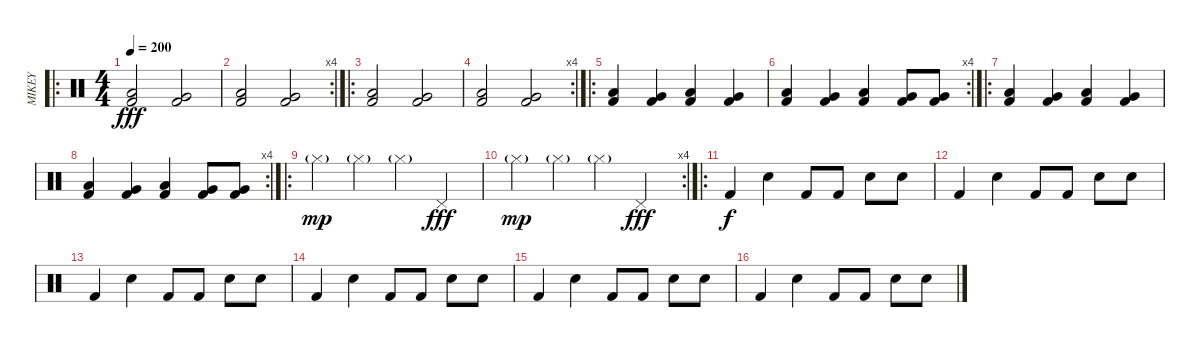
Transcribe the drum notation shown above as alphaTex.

\track ("MIKEY" "MIKEY") {instrument percussion}
\staff {score}
\articulation defaults
\ro
\ts (4 4)
\tempo 200
\clef neutral
\ks c
("Kick (hit) 2" "Low Floor Tom (hit)").2{dy fff} ("Kick (hit) 2" "Very Low Tom (hit)").2 |
\rc 4
("Kick (hit) 2" "Low Floor Tom (hit)").2 ("Kick (hit) 2" "Very Low Tom (hit)").2 |
\ro
("Kick (hit) 2" "Low Floor Tom (hit)").2 ("Kick (hit) 2" "Very Low Tom (hit)").2 |
\rc 4
("Kick (hit) 2" "Low Floor Tom (hit)").2 ("Kick (hit) 2" "Very Low Tom (hit)").2 |
\ro
("Kick (hit) 2" "Low Floor Tom (hit)").4 ("Kick (hit) 2" "Very Low Tom (hit)").4 ("Kick (hit) 2" "Low Floor Tom (hit)").4 ("Kick (hit) 2" "Very Low Tom (hit)").4 |
\rc 4
("Kick (hit) 2" "Low Floor Tom (hit)").4 ("Kick (hit) 2" "Very Low Tom (hit)").4 ("Kick (hit) 2" "Low Floor Tom (hit)").4 ("Kick (hit) 2" "Very Low Tom (hit)").8 ("Kick (hit) 2" "Very Low Tom (hit)").8 |
\ro
("Kick (hit) 2" "Low Floor Tom (hit)").4 ("Kick (hit) 2" "Very Low Tom (hit)").4 ("Kick (hit) 2" "Low Floor Tom (hit)").4 ("Kick (hit) 2" "Very Low Tom (hit)").4 |
\rc 4
("Kick (hit) 2" "Low Floor Tom (hit)").4 ("Kick (hit) 2" "Very Low Tom (hit)").4 ("Kick (hit) 2" "Low Floor Tom (hit)").4 ("Kick (hit) 2" "Very Low Tom (hit)").8 ("Kick (hit) 2" "Very Low Tom (hit)").8 |
\ro "Hi-Hat (closed)"{g}.4{dy mp} "Hi-Hat (closed)"{g}.4 "Hi-Hat (closed)"{g}.4 "Pedal Hi-Hat (hit)".4{dy fff}
|
\rc 4 "Hi-Hat (closed)"{g}.4{dy mp} "Hi-Hat (closed)"{g}.4 "Hi-Hat (closed)"{g}.4 "Pedal Hi-Hat (hit)".4{dy fff}
|
\ro "Kick (hit) 2".4{dy f} "Snare (hit) 2".4 "Kick (hit) 2".8 "Kick (hit) 2".8 "Snare (hit) 2".8 "Snare (hit) 2".8
|
"Kick (hit) 2".4 "Snare (hit) 2".4 "Kick (hit) 2".8 "Kick (hit) 2".8 "Snare (hit) 2".8 "Snare (hit) 2".8 |
"Kick (hit) 2".4 "Snare (hit) 2".4 "Kick (hit) 2".8 "Kick (hit) 2".8 "Snare (hit) 2".8 "Snare (hit) 2".8 |
"Kick (hit) 2".4 "Snare (hit) 2".4 "Kick (hit) 2".8 "Kick (hit) 2".8 "Snare (hit) 2".8 "Snare (hit) 2".8 |
"Kick (hit) 2".4 "Snare (hit) 2".4 "Kick (hit) 2".8 "Kick (hit) 2".8 "Snare (hit) 2".8 "Snare (hit) 2".8 |
"Kick (hit) 2".4 "Snare (hit) 2".4 "Kick (hit) 2".8 "Kick (hit) 2".8 "Snare (hit) 2".8 "Snare (hit) 2".8
